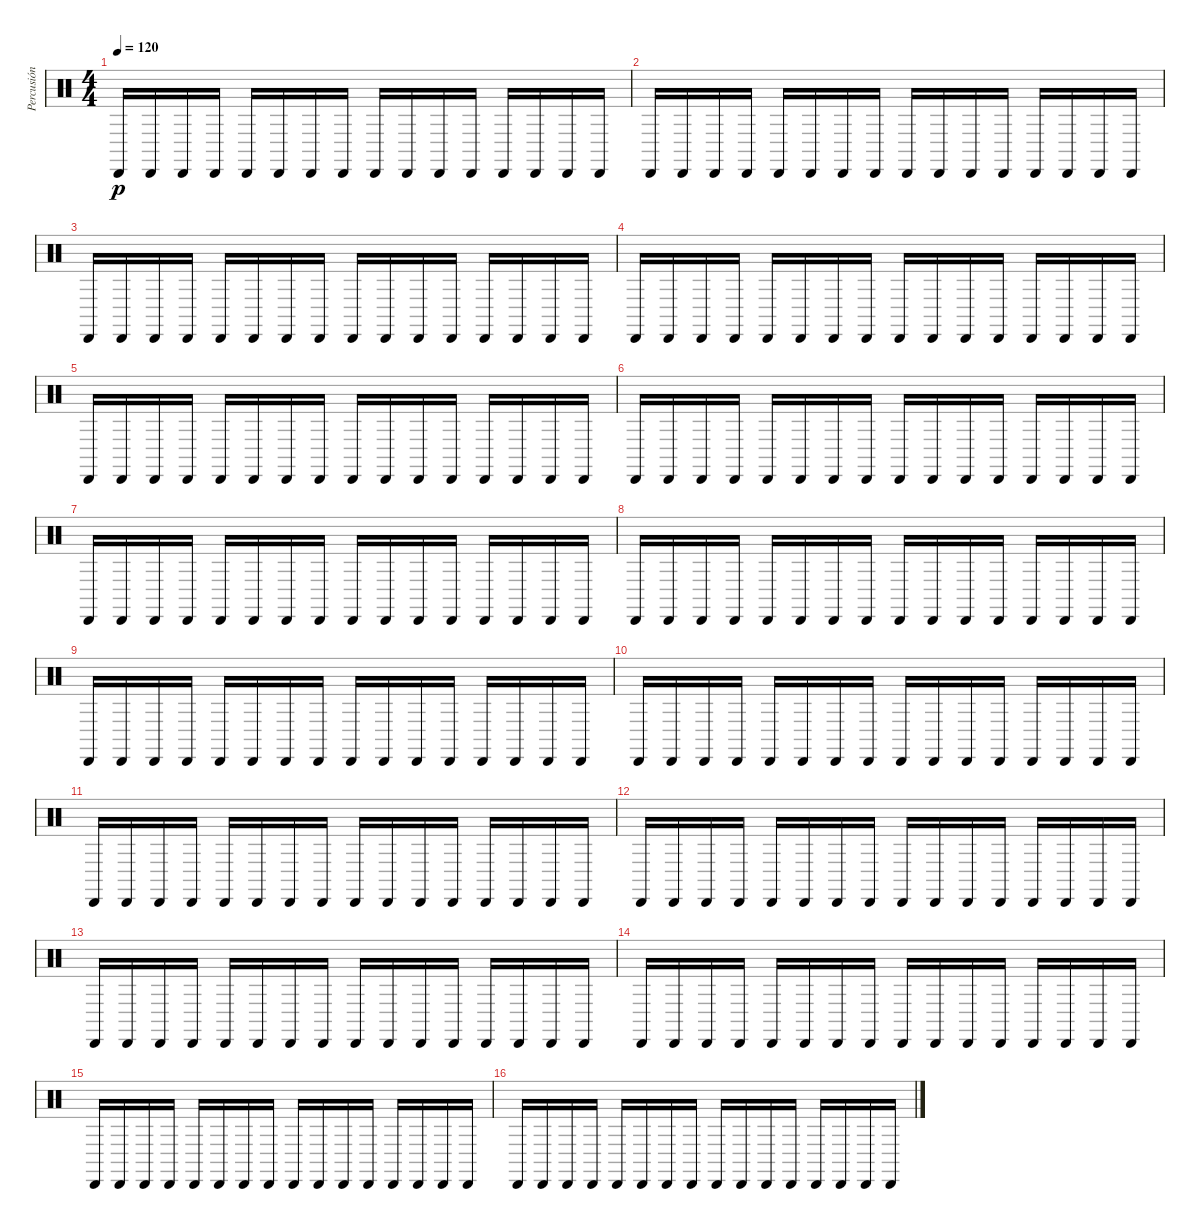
\track ("Percusión" "Percusión") {instrument percussion}
\staff {score}
\articulation defaults
\ts (4 4)
\tempo 120
\clef neutral
\ks c "Cabasa (hit)".16{dy p} "Cabasa (hit)".16 "Cabasa (hit)".16 "Cabasa (hit)".16 "Cabasa (hit)".16 "Cabasa (hit)".16 "Cabasa (hit)".16 "Cabasa (hit)".16 "Cabasa (hit)".16 "Cabasa (hit)".16 "Cabasa (hit)".16 "Cabasa (hit)".16 "Cabasa (hit)".16 "Cabasa (hit)".16 "Cabasa (hit)".16 "Cabasa (hit)".16
|
"Cabasa (hit)".16 "Cabasa (hit)".16 "Cabasa (hit)".16 "Cabasa (hit)".16 "Cabasa (hit)".16 "Cabasa (hit)".16 "Cabasa (hit)".16 "Cabasa (hit)".16 "Cabasa (hit)".16 "Cabasa (hit)".16 "Cabasa (hit)".16 "Cabasa (hit)".16 "Cabasa (hit)".16 "Cabasa (hit)".16 "Cabasa (hit)".16 "Cabasa (hit)".16 |
"Cabasa (hit)".16 "Cabasa (hit)".16 "Cabasa (hit)".16 "Cabasa (hit)".16 "Cabasa (hit)".16 "Cabasa (hit)".16 "Cabasa (hit)".16 "Cabasa (hit)".16 "Cabasa (hit)".16 "Cabasa (hit)".16 "Cabasa (hit)".16 "Cabasa (hit)".16 "Cabasa (hit)".16 "Cabasa (hit)".16 "Cabasa (hit)".16 "Cabasa (hit)".16 |
"Cabasa (hit)".16 "Cabasa (hit)".16 "Cabasa (hit)".16 "Cabasa (hit)".16 "Cabasa (hit)".16 "Cabasa (hit)".16 "Cabasa (hit)".16 "Cabasa (hit)".16 "Cabasa (hit)".16 "Cabasa (hit)".16 "Cabasa (hit)".16 "Cabasa (hit)".16 "Cabasa (hit)".16 "Cabasa (hit)".16 "Cabasa (hit)".16 "Cabasa (hit)".16 |
"Cabasa (hit)".16 "Cabasa (hit)".16 "Cabasa (hit)".16 "Cabasa (hit)".16 "Cabasa (hit)".16 "Cabasa (hit)".16 "Cabasa (hit)".16 "Cabasa (hit)".16 "Cabasa (hit)".16 "Cabasa (hit)".16 "Cabasa (hit)".16 "Cabasa (hit)".16 "Cabasa (hit)".16 "Cabasa (hit)".16 "Cabasa (hit)".16 "Cabasa (hit)".16 |
"Cabasa (hit)".16 "Cabasa (hit)".16 "Cabasa (hit)".16 "Cabasa (hit)".16 "Cabasa (hit)".16 "Cabasa (hit)".16 "Cabasa (hit)".16 "Cabasa (hit)".16 "Cabasa (hit)".16 "Cabasa (hit)".16 "Cabasa (hit)".16 "Cabasa (hit)".16 "Cabasa (hit)".16 "Cabasa (hit)".16 "Cabasa (hit)".16 "Cabasa (hit)".16 |
"Cabasa (hit)".16 "Cabasa (hit)".16 "Cabasa (hit)".16 "Cabasa (hit)".16 "Cabasa (hit)".16 "Cabasa (hit)".16 "Cabasa (hit)".16 "Cabasa (hit)".16 "Cabasa (hit)".16 "Cabasa (hit)".16 "Cabasa (hit)".16 "Cabasa (hit)".16 "Cabasa (hit)".16 "Cabasa (hit)".16 "Cabasa (hit)".16 "Cabasa (hit)".16 |
"Cabasa (hit)".16 "Cabasa (hit)".16 "Cabasa (hit)".16 "Cabasa (hit)".16 "Cabasa (hit)".16 "Cabasa (hit)".16 "Cabasa (hit)".16 "Cabasa (hit)".16 "Cabasa (hit)".16 "Cabasa (hit)".16 "Cabasa (hit)".16 "Cabasa (hit)".16 "Cabasa (hit)".16 "Cabasa (hit)".16 "Cabasa (hit)".16 "Cabasa (hit)".16 |
"Cabasa (hit)".16 "Cabasa (hit)".16 "Cabasa (hit)".16 "Cabasa (hit)".16 "Cabasa (hit)".16 "Cabasa (hit)".16 "Cabasa (hit)".16 "Cabasa (hit)".16 "Cabasa (hit)".16 "Cabasa (hit)".16 "Cabasa (hit)".16 "Cabasa (hit)".16 "Cabasa (hit)".16 "Cabasa (hit)".16 "Cabasa (hit)".16 "Cabasa (hit)".16 |
"Cabasa (hit)".16 "Cabasa (hit)".16 "Cabasa (hit)".16 "Cabasa (hit)".16 "Cabasa (hit)".16 "Cabasa (hit)".16 "Cabasa (hit)".16 "Cabasa (hit)".16 "Cabasa (hit)".16 "Cabasa (hit)".16 "Cabasa (hit)".16 "Cabasa (hit)".16 "Cabasa (hit)".16 "Cabasa (hit)".16 "Cabasa (hit)".16 "Cabasa (hit)".16 |
"Cabasa (hit)".16 "Cabasa (hit)".16 "Cabasa (hit)".16 "Cabasa (hit)".16 "Cabasa (hit)".16 "Cabasa (hit)".16 "Cabasa (hit)".16 "Cabasa (hit)".16 "Cabasa (hit)".16 "Cabasa (hit)".16 "Cabasa (hit)".16 "Cabasa (hit)".16 "Cabasa (hit)".16 "Cabasa (hit)".16 "Cabasa (hit)".16 "Cabasa (hit)".16 |
"Cabasa (hit)".16 "Cabasa (hit)".16 "Cabasa (hit)".16 "Cabasa (hit)".16 "Cabasa (hit)".16 "Cabasa (hit)".16 "Cabasa (hit)".16 "Cabasa (hit)".16 "Cabasa (hit)".16 "Cabasa (hit)".16 "Cabasa (hit)".16 "Cabasa (hit)".16 "Cabasa (hit)".16 "Cabasa (hit)".16 "Cabasa (hit)".16 "Cabasa (hit)".16 |
"Cabasa (hit)".16 "Cabasa (hit)".16 "Cabasa (hit)".16 "Cabasa (hit)".16 "Cabasa (hit)".16 "Cabasa (hit)".16 "Cabasa (hit)".16 "Cabasa (hit)".16 "Cabasa (hit)".16 "Cabasa (hit)".16 "Cabasa (hit)".16 "Cabasa (hit)".16 "Cabasa (hit)".16 "Cabasa (hit)".16 "Cabasa (hit)".16 "Cabasa (hit)".16 |
"Cabasa (hit)".16 "Cabasa (hit)".16 "Cabasa (hit)".16 "Cabasa (hit)".16 "Cabasa (hit)".16 "Cabasa (hit)".16 "Cabasa (hit)".16 "Cabasa (hit)".16 "Cabasa (hit)".16 "Cabasa (hit)".16 "Cabasa (hit)".16 "Cabasa (hit)".16 "Cabasa (hit)".16 "Cabasa (hit)".16 "Cabasa (hit)".16 "Cabasa (hit)".16 |
"Cabasa (hit)".16 "Cabasa (hit)".16 "Cabasa (hit)".16 "Cabasa (hit)".16 "Cabasa (hit)".16 "Cabasa (hit)".16 "Cabasa (hit)".16 "Cabasa (hit)".16 "Cabasa (hit)".16 "Cabasa (hit)".16 "Cabasa (hit)".16 "Cabasa (hit)".16 "Cabasa (hit)".16 "Cabasa (hit)".16 "Cabasa (hit)".16 "Cabasa (hit)".16 |
"Cabasa (hit)".16 "Cabasa (hit)".16 "Cabasa (hit)".16 "Cabasa (hit)".16 "Cabasa (hit)".16 "Cabasa (hit)".16 "Cabasa (hit)".16 "Cabasa (hit)".16 "Cabasa (hit)".16 "Cabasa (hit)".16 "Cabasa (hit)".16 "Cabasa (hit)".16 "Cabasa (hit)".16 "Cabasa (hit)".16 "Cabasa (hit)".16 "Cabasa (hit)".16
